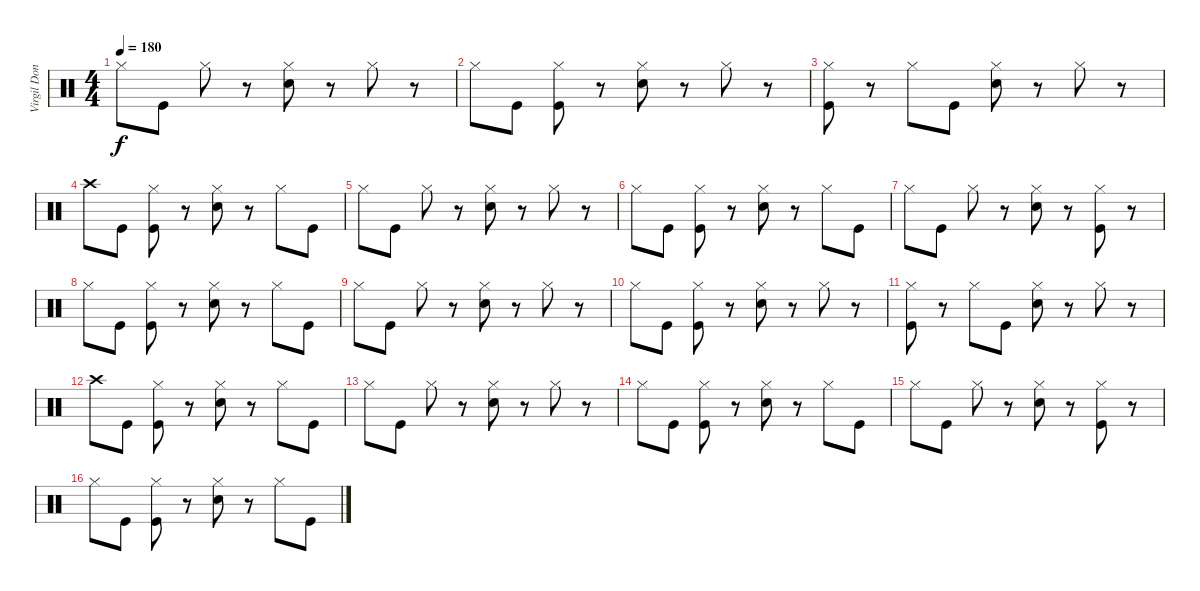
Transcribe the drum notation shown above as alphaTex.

\track ("Virgil Donati" "Virgil Don") {instrument percussion}
\staff {score}
\articulation defaults
\ts (4 4)
\tempo 180
\clef neutral
\ks c "Hi-Hat (closed)".8{dy f} "Kick (hit)".8 "Hi-Hat (closed)".8
r.8 ("Hi-Hat (closed)" "Electric Snare (hit)").8 r.8 "Hi-Hat (closed)".8 r.8 |
"Hi-Hat (closed)".8 "Kick (hit)".8 ("Hi-Hat (closed)" "Kick (hit)").8 r.8 ("Hi-Hat (closed)" "Electric Snare (hit)").8 r.8 "Hi-Hat (closed)".8 r.8 |
("Hi-Hat (closed)" "Kick (hit)").8 r.8 "Hi-Hat (closed)".8 "Kick (hit)".8 ("Hi-Hat (closed)" "Electric Snare (hit)").8 r.8 "Hi-Hat (closed)".8 r.8 |
"Crash high (hit)".8 "Kick (hit)".8 ("Hi-Hat (closed)" "Kick (hit)").8 r.8 ("Hi-Hat (closed)" "Electric Snare (hit)").8 r.8 "Hi-Hat (closed)".8 "Kick (hit)".8 |
"Hi-Hat (closed)".8 "Kick (hit)".8 "Hi-Hat (closed)".8 r.8 ("Hi-Hat (closed)" "Electric Snare (hit)").8 r.8 "Hi-Hat (closed)".8 r.8 |
"Hi-Hat (closed)".8 "Kick (hit)".8 ("Hi-Hat (closed)" "Kick (hit)").8 r.8 ("Hi-Hat (closed)" "Electric Snare (hit)").8 r.8 "Hi-Hat (closed)".8 "Kick (hit)".8 |
"Hi-Hat (closed)".8 "Kick (hit)".8 "Hi-Hat (closed)".8 r.8 ("Hi-Hat (closed)" "Electric Snare (hit)").8 r.8 ("Hi-Hat (closed)" "Kick (hit)").8 r.8 |
"Hi-Hat (closed)".8 "Kick (hit)".8 ("Hi-Hat (closed)" "Kick (hit)").8 r.8 ("Hi-Hat (closed)" "Electric Snare (hit)").8 r.8 "Hi-Hat (closed)".8 "Kick (hit)".8 |
"Hi-Hat (closed)".8 "Kick (hit)".8 "Hi-Hat (closed)".8 r.8 ("Hi-Hat (closed)" "Electric Snare (hit)").8 r.8 "Hi-Hat (closed)".8 r.8 |
"Hi-Hat (closed)".8 "Kick (hit)".8 ("Hi-Hat (closed)" "Kick (hit)").8 r.8 ("Hi-Hat (closed)" "Electric Snare (hit)").8 r.8 "Hi-Hat (closed)".8 r.8 |
("Hi-Hat (closed)" "Kick (hit)").8 r.8 "Hi-Hat (closed)".8 "Kick (hit)".8 ("Hi-Hat (closed)" "Electric Snare (hit)").8 r.8 "Hi-Hat (closed)".8 r.8 |
"Crash high (hit)".8 "Kick (hit)".8 ("Hi-Hat (closed)" "Kick (hit)").8 r.8 ("Hi-Hat (closed)" "Electric Snare (hit)").8 r.8 "Hi-Hat (closed)".8 "Kick (hit)".8 |
"Hi-Hat (closed)".8 "Kick (hit)".8 "Hi-Hat (closed)".8 r.8 ("Hi-Hat (closed)" "Electric Snare (hit)").8 r.8 "Hi-Hat (closed)".8 r.8 |
"Hi-Hat (closed)".8 "Kick (hit)".8 ("Hi-Hat (closed)" "Kick (hit)").8 r.8 ("Hi-Hat (closed)" "Electric Snare (hit)").8 r.8 "Hi-Hat (closed)".8 "Kick (hit)".8 |
"Hi-Hat (closed)".8 "Kick (hit)".8 "Hi-Hat (closed)".8 r.8 ("Hi-Hat (closed)" "Electric Snare (hit)").8 r.8 ("Hi-Hat (closed)" "Kick (hit)").8 r.8 |
"Hi-Hat (closed)".8 "Kick (hit)".8 ("Hi-Hat (closed)" "Kick (hit)").8 r.8 ("Hi-Hat (closed)" "Electric Snare (hit)").8 r.8 "Hi-Hat (closed)".8 "Kick (hit)".8
